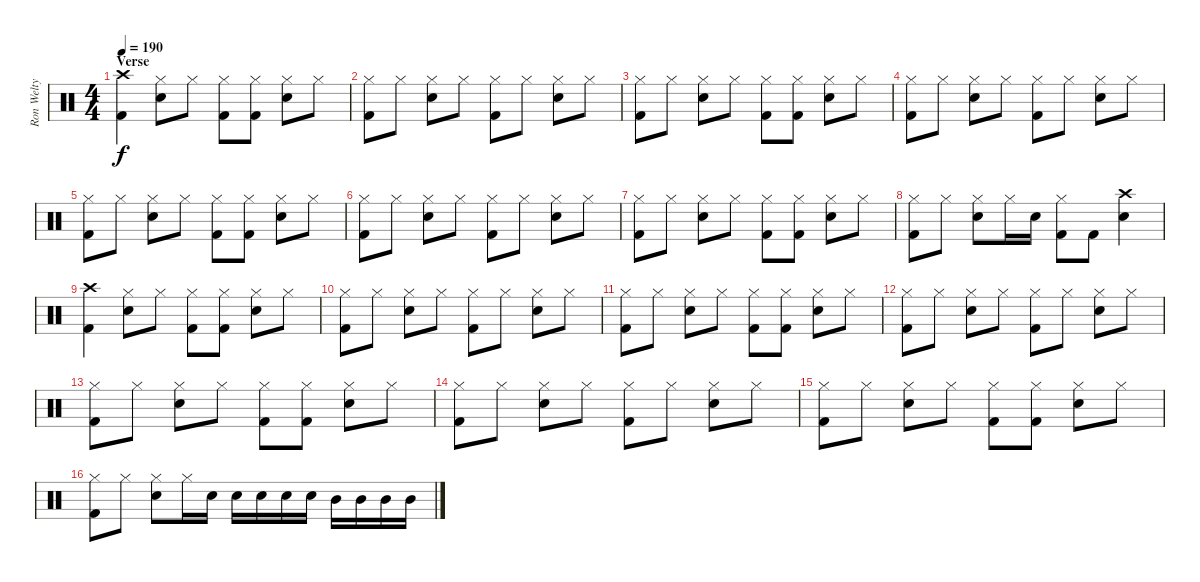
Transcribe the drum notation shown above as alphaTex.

\track ("Ron Welty" "Ron Welty") {instrument percussion}
\staff {score}
\articulation defaults
\ts (4 4)
\section ("" "Verse")
\tempo 190
\clef neutral
\ks c
("Crash high (hit)" "Kick (hit) 2").4{dy f} ("Hi-Hat (closed)" "Electric Snare (hit)").8 "Hi-Hat (closed)".8 ("Hi-Hat (closed)" "Kick (hit) 2").8 ("Hi-Hat (closed)" "Kick (hit) 2").8 ("Hi-Hat (closed)" "Electric Snare (hit)").8 "Hi-Hat (closed)".8 |
("Hi-Hat (closed)" "Kick (hit) 2").8 "Hi-Hat (closed)".8 ("Hi-Hat (closed)" "Electric Snare (hit)").8 "Hi-Hat (closed)".8 ("Hi-Hat (closed)" "Kick (hit) 2").8 "Hi-Hat (closed)".8 ("Hi-Hat (closed)" "Electric Snare (hit)").8 "Hi-Hat (closed)".8 |
("Hi-Hat (closed)" "Kick (hit) 2").8 "Hi-Hat (closed)".8 ("Hi-Hat (closed)" "Electric Snare (hit)").8 "Hi-Hat (closed)".8 ("Hi-Hat (closed)" "Kick (hit) 2").8 ("Hi-Hat (closed)" "Kick (hit) 2").8 ("Hi-Hat (closed)" "Electric Snare (hit)").8 "Hi-Hat (closed)".8 |
("Hi-Hat (closed)" "Kick (hit) 2").8 "Hi-Hat (closed)".8 ("Hi-Hat (closed)" "Electric Snare (hit)").8 "Hi-Hat (closed)".8 ("Hi-Hat (closed)" "Kick (hit) 2").8 "Hi-Hat (closed)".8 ("Hi-Hat (closed)" "Electric Snare (hit)").8 "Hi-Hat (closed)".8 |
("Hi-Hat (closed)" "Kick (hit) 2").8 "Hi-Hat (closed)".8 ("Hi-Hat (closed)" "Electric Snare (hit)").8 "Hi-Hat (closed)".8 ("Hi-Hat (closed)" "Kick (hit) 2").8 ("Hi-Hat (closed)" "Kick (hit) 2").8 ("Hi-Hat (closed)" "Electric Snare (hit)").8 "Hi-Hat (closed)".8 |
("Hi-Hat (closed)" "Kick (hit) 2").8 "Hi-Hat (closed)".8 ("Hi-Hat (closed)" "Electric Snare (hit)").8 "Hi-Hat (closed)".8 ("Hi-Hat (closed)" "Kick (hit) 2").8 "Hi-Hat (closed)".8 ("Hi-Hat (closed)" "Electric Snare (hit)").8 "Hi-Hat (closed)".8 |
("Hi-Hat (closed)" "Kick (hit) 2").8 "Hi-Hat (closed)".8 ("Hi-Hat (closed)" "Electric Snare (hit)").8 "Hi-Hat (closed)".8 ("Hi-Hat (closed)" "Kick (hit) 2").8 ("Hi-Hat (closed)" "Kick (hit) 2").8 ("Hi-Hat (closed)" "Electric Snare (hit)").8 "Hi-Hat (closed)".8 |
("Hi-Hat (closed)" "Kick (hit) 2").8 "Hi-Hat (closed)".8 ("Hi-Hat (closed)" "Electric Snare (hit)").8 "Hi-Hat (closed)".16 "Electric Snare (hit)".16 ("Hi-Hat (closed)" "Kick (hit) 2").8 "Kick (hit) 2".8 ("Crash high (hit)" "Electric Snare (hit)").4 |
("Crash high (hit)" "Kick (hit) 2").4 ("Hi-Hat (closed)" "Electric Snare (hit)").8 "Hi-Hat (closed)".8 ("Hi-Hat (closed)" "Kick (hit) 2").8 ("Hi-Hat (closed)" "Kick (hit) 2").8 ("Hi-Hat (closed)" "Electric Snare (hit)").8 "Hi-Hat (closed)".8 |
("Hi-Hat (closed)" "Kick (hit) 2").8 "Hi-Hat (closed)".8 ("Hi-Hat (closed)" "Electric Snare (hit)").8 "Hi-Hat (closed)".8 ("Hi-Hat (closed)" "Kick (hit) 2").8 "Hi-Hat (closed)".8 ("Hi-Hat (closed)" "Electric Snare (hit)").8 "Hi-Hat (closed)".8 |
("Hi-Hat (closed)" "Kick (hit) 2").8 "Hi-Hat (closed)".8 ("Hi-Hat (closed)" "Electric Snare (hit)").8 "Hi-Hat (closed)".8 ("Hi-Hat (closed)" "Kick (hit) 2").8 ("Hi-Hat (closed)" "Kick (hit) 2").8 ("Hi-Hat (closed)" "Electric Snare (hit)").8 "Hi-Hat (closed)".8 |
("Hi-Hat (closed)" "Kick (hit) 2").8 "Hi-Hat (closed)".8 ("Hi-Hat (closed)" "Electric Snare (hit)").8 "Hi-Hat (closed)".8 ("Hi-Hat (closed)" "Kick (hit) 2").8 "Hi-Hat (closed)".8 ("Hi-Hat (closed)" "Electric Snare (hit)").8 "Hi-Hat (closed)".8 |
("Hi-Hat (closed)" "Kick (hit) 2").8 "Hi-Hat (closed)".8 ("Hi-Hat (closed)" "Electric Snare (hit)").8 "Hi-Hat (closed)".8 ("Hi-Hat (closed)" "Kick (hit) 2").8 ("Hi-Hat (closed)" "Kick (hit) 2").8 ("Hi-Hat (closed)" "Electric Snare (hit)").8 "Hi-Hat (closed)".8 |
("Hi-Hat (closed)" "Kick (hit) 2").8 "Hi-Hat (closed)".8 ("Hi-Hat (closed)" "Electric Snare (hit)").8 "Hi-Hat (closed)".8 ("Hi-Hat (closed)" "Kick (hit) 2").8 "Hi-Hat (closed)".8 ("Hi-Hat (closed)" "Electric Snare (hit)").8 "Hi-Hat (closed)".8 |
("Hi-Hat (closed)" "Kick (hit) 2").8 "Hi-Hat (closed)".8 ("Hi-Hat (closed)" "Electric Snare (hit)").8 "Hi-Hat (closed)".8 ("Hi-Hat (closed)" "Kick (hit) 2").8 ("Hi-Hat (closed)" "Kick (hit) 2").8 ("Hi-Hat (closed)" "Electric Snare (hit)").8 "Hi-Hat (closed)".8 |
("Hi-Hat (closed)" "Kick (hit) 2").8 "Hi-Hat (closed)".8 ("Hi-Hat (closed)" "Electric Snare (hit)").8 "Hi-Hat (closed)".16 "Electric Snare (hit)".16 "Electric Snare (hit)".16 "Electric Snare (hit)".16 "Electric Snare (hit)".16 "Electric Snare (hit)".16 "Mid Tom (hit)".16 "Mid Tom (hit)".16 "Mid Tom (hit)".16 "Mid Tom (hit)".16
